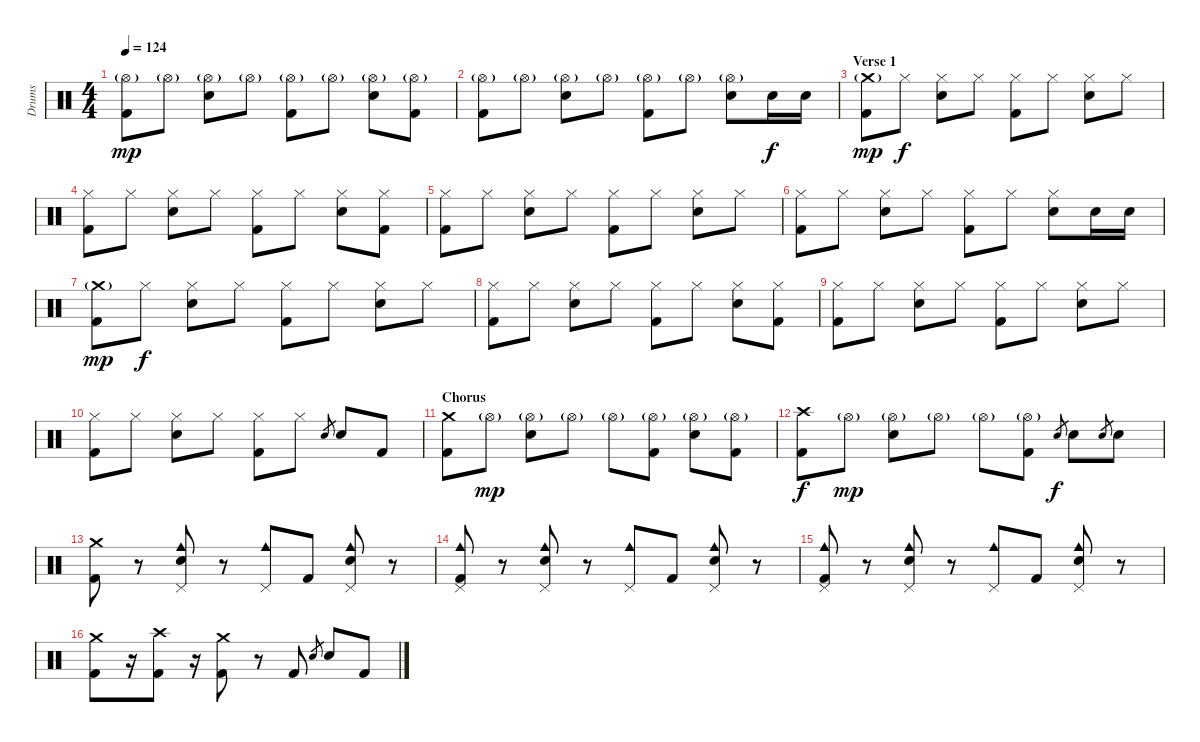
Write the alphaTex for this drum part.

\track ("Drums" "Drums") {instrument percussion}
\staff {score}
\articulation defaults
\ts (4 4)
\tempo 124
\clef neutral
\ks c
("Hi-Hat (open)"{g} "Kick (hit) 2").8{dy mp} "Hi-Hat (open)"{g}.8 ("Hi-Hat (open)"{g} "Snare (hit) 2").8 "Hi-Hat (open)"{g}.8 ("Hi-Hat (open)"{g} "Kick (hit) 2").8 "Hi-Hat (open)"{g}.8 ("Hi-Hat (open)"{g} "Snare (hit) 2").8 ("Hi-Hat (open)"{g} "Kick (hit) 2").8 |
("Hi-Hat (open)"{g} "Kick (hit) 2").8 "Hi-Hat (open)"{g}.8 ("Hi-Hat (open)"{g} "Snare (hit) 2").8 "Hi-Hat (open)"{g}.8 ("Hi-Hat (open)"{g} "Kick (hit) 2").8 "Hi-Hat (open)"{g}.8 ("Hi-Hat (open)"{g} "Snare (hit) 2").8 "Snare (hit) 2".16{dy f} "Snare (hit) 2".16 |
\section ("" "Verse 1")
("Crash medium (hit)"{g} "Kick (hit) 2").8{dy mp} "Hi-Hat (closed)".8{dy f} ("Hi-Hat (closed)" "Snare (hit) 2").8 "Hi-Hat (closed)".8 ("Hi-Hat (closed)" "Kick (hit) 2").8 "Hi-Hat (closed)".8 ("Hi-Hat (closed)" "Snare (hit) 2").8 "Hi-Hat (closed)".8 |
("Hi-Hat (closed)" "Kick (hit) 2").8 "Hi-Hat (closed)".8 ("Hi-Hat (closed)" "Snare (hit) 2").8 "Hi-Hat (closed)".8 ("Hi-Hat (closed)" "Kick (hit) 2").8 "Hi-Hat (closed)".8 ("Hi-Hat (closed)" "Snare (hit) 2").8 ("Hi-Hat (closed)" "Kick (hit) 2").8 |
("Hi-Hat (closed)" "Kick (hit) 2").8 "Hi-Hat (closed)".8 ("Hi-Hat (closed)" "Snare (hit) 2").8 "Hi-Hat (closed)".8 ("Hi-Hat (closed)" "Kick (hit) 2").8 "Hi-Hat (closed)".8 ("Hi-Hat (closed)" "Snare (hit) 2").8 "Hi-Hat (closed)".8 |
("Hi-Hat (closed)" "Kick (hit) 2").8 "Hi-Hat (closed)".8 ("Hi-Hat (closed)" "Snare (hit) 2").8 "Hi-Hat (closed)".8 ("Hi-Hat (closed)" "Kick (hit) 2").8 "Hi-Hat (closed)".8 ("Hi-Hat (closed)" "Snare (hit) 2").8 "Snare (hit) 2".16 "Snare (hit) 2".16 |
("Crash medium (hit)"{g} "Kick (hit) 2").8{dy mp} "Hi-Hat (closed)".8{dy f} ("Hi-Hat (closed)" "Snare (hit) 2").8 "Hi-Hat (closed)".8 ("Hi-Hat (closed)" "Kick (hit) 2").8 "Hi-Hat (closed)".8 ("Hi-Hat (closed)" "Snare (hit) 2").8 "Hi-Hat (closed)".8 |
("Hi-Hat (closed)" "Kick (hit) 2").8 "Hi-Hat (closed)".8 ("Hi-Hat (closed)" "Snare (hit) 2").8 "Hi-Hat (closed)".8 ("Hi-Hat (closed)" "Kick (hit) 2").8 "Hi-Hat (closed)".8 ("Hi-Hat (closed)" "Snare (hit) 2").8 ("Hi-Hat (closed)" "Kick (hit) 2").8 |
("Hi-Hat (closed)" "Kick (hit) 2").8 "Hi-Hat (closed)".8 ("Hi-Hat (closed)" "Snare (hit) 2").8 "Hi-Hat (closed)".8 ("Hi-Hat (closed)" "Kick (hit) 2").8 "Hi-Hat (closed)".8 ("Hi-Hat (closed)" "Snare (hit) 2").8 "Hi-Hat (closed)".8 |
("Hi-Hat (closed)" "Kick (hit) 2").8 "Hi-Hat (closed)".8 ("Hi-Hat (closed)" "Snare (hit) 2").8 "Hi-Hat (closed)".8 ("Hi-Hat (closed)" "Kick (hit) 2").8 "Hi-Hat (closed)".8 "Snare (hit) 2".8{gr} "Snare (hit) 2".8 "Kick (hit) 2".8 |
\section ("" "Chorus")
("Crash medium (hit)" "Kick (hit) 2").8 "Hi-Hat (open)"{g}.8{dy mp} ("Hi-Hat (open)"{g} "Snare (hit) 2").8 "Hi-Hat (open)"{g}.8 "Hi-Hat (open)"{g}.8 ("Hi-Hat (open)"{g} "Kick (hit) 2").8 ("Hi-Hat (open)"{g} "Snare (hit) 2").8 ("Hi-Hat (open)"{g} "Kick (hit) 2").8 |
("Crash high (hit)" "Kick (hit) 2").8{dy f} "Hi-Hat (open)"{g}.8{dy mp} ("Hi-Hat (open)"{g} "Snare (hit) 2").8 "Hi-Hat (open)"{g}.8 "Hi-Hat (open)"{g}.8 ("Hi-Hat (open)"{g} "Kick (hit) 2").8 "Snare (hit) 2".8{gr dy f} "Snare (hit) 2".8 "Snare (hit) 2".8{gr} "Snare (hit) 2".8 |
("Crash medium (hit)" "Kick (hit) 2").8 r.8 ("Cowbell medium (hit)" "Pedal Hi-Hat (hit)" "Snare (hit) 2").8 r.8 ("Cowbell medium (hit)" "Pedal Hi-Hat (hit)").8 "Kick (hit) 2".8 ("Cowbell medium (hit)" "Pedal Hi-Hat (hit)" "Snare (hit) 2").8 r.8 |
("Cowbell medium (hit)" "Pedal Hi-Hat (hit)" "Kick (hit) 2").8 r.8 ("Cowbell medium (hit)" "Pedal Hi-Hat (hit)" "Snare (hit) 2").8 r.8 ("Cowbell medium (hit)" "Pedal Hi-Hat (hit)").8 "Kick (hit) 2".8 ("Cowbell medium (hit)" "Pedal Hi-Hat (hit)" "Snare (hit) 2").8 r.8 |
("Cowbell medium (hit)" "Pedal Hi-Hat (hit)" "Kick (hit) 2").8 r.8 ("Cowbell medium (hit)" "Pedal Hi-Hat (hit)" "Snare (hit) 2").8 r.8 ("Cowbell medium (hit)" "Pedal Hi-Hat (hit)").8 "Kick (hit) 2".8 ("Cowbell medium (hit)" "Pedal Hi-Hat (hit)" "Snare (hit) 2").8 r.8 |
("Crash medium (hit)" "Kick (hit) 2").8 r.16 ("Crash high (hit)" "Kick (hit) 2").8 r.16 ("Crash medium (hit)" "Kick (hit) 2").8 r.8 "Kick (hit) 2".8 "Snare (hit) 2".8{gr} "Snare (hit) 2".8 "Kick (hit) 2".8
